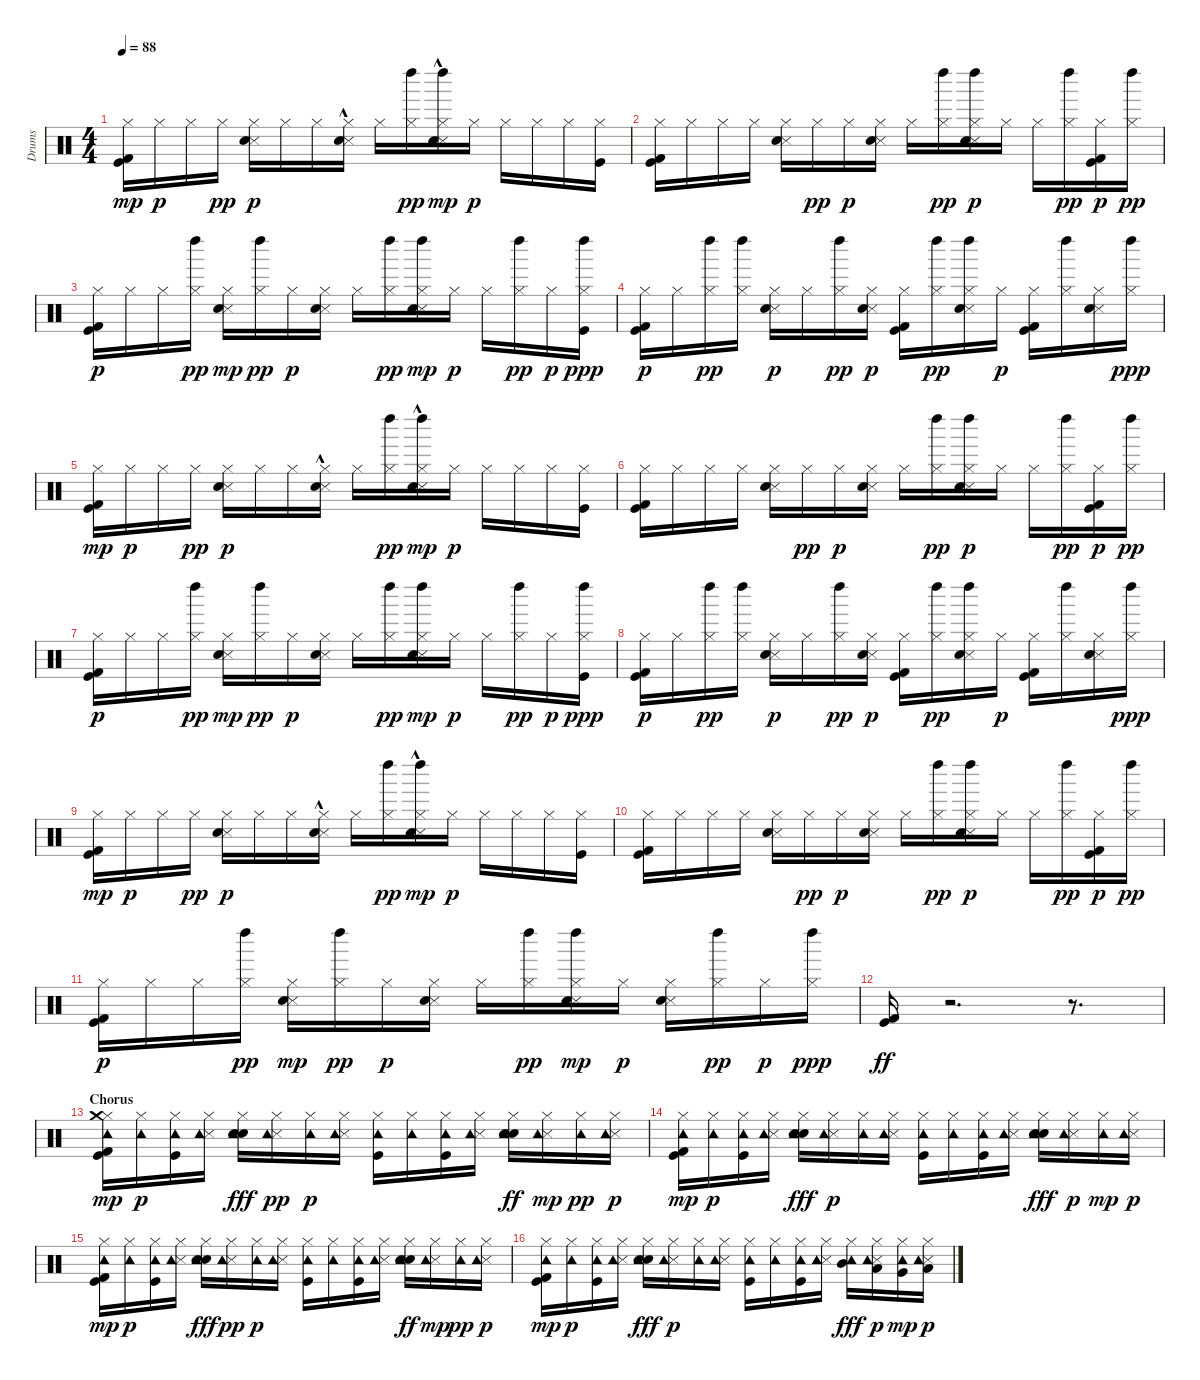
\track ("Drums" "Drums") {instrument percussion}
\staff {score}
\articulation defaults
\ts (4 4)
\tempo 88
\clef neutral
\ks c
("Kick (hit) 2" "Kick (hit)" "Hi-Hat (closed)").16{dy mp} "Hi-Hat (closed)".16{dy p} "Hi-Hat (closed)".16 "Hi-Hat (closed)".16{dy pp} ("Snare (side stick) 3" "Snare (hit) 2" "Hi-Hat (closed)").16{dy p} "Hi-Hat (closed)".16 "Hi-Hat (closed)".16 ("Snare (side stick) 3"{hac} "Snare (hit) 2"{hac} "Hi-Hat (closed)").16 "Hi-Hat (closed)".16 ("Hi-Hat (closed)" "Left Maraca (hit)").16{dy pp} ("Snare (side stick) 3"{hac} "Snare (hit) 2" "Hi-Hat (closed)" "Left Maraca (hit)").16{dy mp} "Hi-Hat (closed)".16{dy p} "Hi-Hat (closed)".16 "Hi-Hat (closed)".16 "Hi-Hat (closed)".16 ("Kick (hit)" "Hi-Hat (closed)").16 |
("Kick (hit)" "Kick (hit) 2" "Hi-Hat (closed)").16 "Hi-Hat (closed)".16 "Hi-Hat (closed)".16 "Hi-Hat (closed)".16 ("Snare (side stick) 3" "Snare (hit) 2" "Hi-Hat (closed)").16 "Hi-Hat (closed)".16{dy pp} "Hi-Hat (closed)".16{dy p} ("Snare (side stick) 3" "Snare (hit) 2" "Hi-Hat (closed)").16 "Hi-Hat (closed)".16 ("Hi-Hat (closed)" "Left Maraca (hit)").16{dy pp} ("Snare (side stick) 3" "Snare (hit) 2" "Hi-Hat (closed)" "Left Maraca (hit)").16{dy p} "Hi-Hat (closed)".16 "Hi-Hat (closed)".16 ("Hi-Hat (closed)" "Left Maraca (hit)").16{dy pp} ("Kick (hit)" "Kick (hit) 2" "Hi-Hat (closed)").16{dy p} ("Hi-Hat (closed)" "Left Maraca (hit)").16{dy pp} |
("Kick (hit)" "Kick (hit) 2" "Hi-Hat (closed)").16{dy p} "Hi-Hat (closed)".16 "Hi-Hat (closed)".16 ("Hi-Hat (closed)" "Left Maraca (hit)").16{dy pp} ("Snare (side stick) 3" "Snare (hit) 2" "Hi-Hat (closed)").16{dy mp} ("Hi-Hat (closed)" "Left Maraca (hit)").16{dy pp} "Hi-Hat (closed)".16{dy p} ("Snare (side stick) 3" "Snare (hit) 2" "Hi-Hat (closed)").16 "Hi-Hat (closed)".16 ("Hi-Hat (closed)" "Left Maraca (hit)").16{dy pp} ("Snare (side stick) 3" "Snare (hit) 2" "Hi-Hat (closed)" "Left Maraca (hit)").16{dy mp} "Hi-Hat (closed)".16{dy p} "Hi-Hat (closed)".16 ("Hi-Hat (closed)" "Left Maraca (hit)").16{dy pp} "Hi-Hat (closed)".16{dy p} ("Kick (hit)" "Hi-Hat (closed)" "Left Maraca (hit)").16{dy ppp} |
("Kick (hit)" "Kick (hit) 2" "Hi-Hat (closed)").16{dy p} "Hi-Hat (closed)".16 ("Hi-Hat (closed)" "Left Maraca (hit)").16{dy pp} ("Hi-Hat (closed)" "Left Maraca (hit)").16 ("Snare (side stick) 3" "Snare (hit) 2" "Hi-Hat (closed)").16{dy p} "Hi-Hat (closed)".16 ("Hi-Hat (closed)" "Left Maraca (hit)").16{dy pp} ("Snare (side stick) 3" "Snare (hit) 2" "Hi-Hat (closed)").16{dy p} ("Kick (hit) 2" "Kick (hit)" "Hi-Hat (closed)").16 ("Hi-Hat (closed)" "Left Maraca (hit)").16{dy pp} ("Snare (side stick) 3" "Snare (hit) 2" "Hi-Hat (closed)" "Left Maraca (hit)").16 "Hi-Hat (closed)".16{dy p} ("Kick (hit)" "Kick (hit) 2" "Hi-Hat (closed)").16 ("Hi-Hat (closed)" "Left Maraca (hit)").16 ("Snare (side stick) 3" "Snare (hit) 2" "Hi-Hat (closed)").16 ("Hi-Hat (closed)" "Left Maraca (hit)").16{dy ppp} |
("Kick (hit) 2" "Kick (hit)" "Hi-Hat (closed)").16{dy mp} "Hi-Hat (closed)".16{dy p} "Hi-Hat (closed)".16 "Hi-Hat (closed)".16{dy pp} ("Snare (side stick) 3" "Snare (hit) 2" "Hi-Hat (closed)").16{dy p} "Hi-Hat (closed)".16 "Hi-Hat (closed)".16 ("Snare (side stick) 3"{hac} "Snare (hit) 2"{hac} "Hi-Hat (closed)").16 "Hi-Hat (closed)".16 ("Hi-Hat (closed)" "Left Maraca (hit)").16{dy pp} ("Snare (side stick) 3"{hac} "Snare (hit) 2" "Hi-Hat (closed)" "Left Maraca (hit)").16{dy mp} "Hi-Hat (closed)".16{dy p} "Hi-Hat (closed)".16 "Hi-Hat (closed)".16 "Hi-Hat (closed)".16 ("Kick (hit)" "Hi-Hat (closed)").16 |
("Kick (hit)" "Kick (hit) 2" "Hi-Hat (closed)").16 "Hi-Hat (closed)".16 "Hi-Hat (closed)".16 "Hi-Hat (closed)".16 ("Snare (side stick) 3" "Snare (hit) 2" "Hi-Hat (closed)").16 "Hi-Hat (closed)".16{dy pp} "Hi-Hat (closed)".16{dy p} ("Snare (side stick) 3" "Snare (hit) 2" "Hi-Hat (closed)").16 "Hi-Hat (closed)".16 ("Hi-Hat (closed)" "Left Maraca (hit)").16{dy pp} ("Snare (side stick) 3" "Snare (hit) 2" "Hi-Hat (closed)" "Left Maraca (hit)").16{dy p} "Hi-Hat (closed)".16 "Hi-Hat (closed)".16 ("Hi-Hat (closed)" "Left Maraca (hit)").16{dy pp} ("Kick (hit)" "Kick (hit) 2" "Hi-Hat (closed)").16{dy p} ("Hi-Hat (closed)" "Left Maraca (hit)").16{dy pp} |
("Kick (hit)" "Kick (hit) 2" "Hi-Hat (closed)").16{dy p} "Hi-Hat (closed)".16 "Hi-Hat (closed)".16 ("Hi-Hat (closed)" "Left Maraca (hit)").16{dy pp} ("Snare (side stick) 3" "Snare (hit) 2" "Hi-Hat (closed)").16{dy mp} ("Hi-Hat (closed)" "Left Maraca (hit)").16{dy pp} "Hi-Hat (closed)".16{dy p} ("Snare (side stick) 3" "Snare (hit) 2" "Hi-Hat (closed)").16 "Hi-Hat (closed)".16 ("Hi-Hat (closed)" "Left Maraca (hit)").16{dy pp} ("Snare (side stick) 3" "Snare (hit) 2" "Hi-Hat (closed)" "Left Maraca (hit)").16{dy mp} "Hi-Hat (closed)".16{dy p} "Hi-Hat (closed)".16 ("Hi-Hat (closed)" "Left Maraca (hit)").16{dy pp} "Hi-Hat (closed)".16{dy p} ("Kick (hit)" "Hi-Hat (closed)" "Left Maraca (hit)").16{dy ppp} |
("Kick (hit)" "Kick (hit) 2" "Hi-Hat (closed)").16{dy p} "Hi-Hat (closed)".16 ("Hi-Hat (closed)" "Left Maraca (hit)").16{dy pp} ("Hi-Hat (closed)" "Left Maraca (hit)").16 ("Snare (side stick) 3" "Snare (hit) 2" "Hi-Hat (closed)").16{dy p} "Hi-Hat (closed)".16 ("Hi-Hat (closed)" "Left Maraca (hit)").16{dy pp} ("Snare (side stick) 3" "Snare (hit) 2" "Hi-Hat (closed)").16{dy p} ("Kick (hit) 2" "Kick (hit)" "Hi-Hat (closed)").16 ("Hi-Hat (closed)" "Left Maraca (hit)").16{dy pp} ("Snare (side stick) 3" "Snare (hit) 2" "Hi-Hat (closed)" "Left Maraca (hit)").16 "Hi-Hat (closed)".16{dy p} ("Kick (hit)" "Kick (hit) 2" "Hi-Hat (closed)").16 ("Hi-Hat (closed)" "Left Maraca (hit)").16 ("Snare (side stick) 3" "Snare (hit) 2" "Hi-Hat (closed)").16 ("Hi-Hat (closed)" "Left Maraca (hit)").16{dy ppp} |
("Kick (hit) 2" "Kick (hit)" "Hi-Hat (closed)").16{dy mp} "Hi-Hat (closed)".16{dy p} "Hi-Hat (closed)".16 "Hi-Hat (closed)".16{dy pp} ("Snare (side stick) 3" "Snare (hit) 2" "Hi-Hat (closed)").16{dy p} "Hi-Hat (closed)".16 "Hi-Hat (closed)".16 ("Snare (side stick) 3"{hac} "Snare (hit) 2"{hac} "Hi-Hat (closed)").16 "Hi-Hat (closed)".16 ("Hi-Hat (closed)" "Left Maraca (hit)").16{dy pp} ("Snare (side stick) 3"{hac} "Snare (hit) 2" "Hi-Hat (closed)" "Left Maraca (hit)").16{dy mp} "Hi-Hat (closed)".16{dy p} "Hi-Hat (closed)".16 "Hi-Hat (closed)".16 "Hi-Hat (closed)".16 ("Kick (hit)" "Hi-Hat (closed)").16 |
("Kick (hit)" "Kick (hit) 2" "Hi-Hat (closed)").16 "Hi-Hat (closed)".16 "Hi-Hat (closed)".16 "Hi-Hat (closed)".16 ("Snare (side stick) 3" "Snare (hit) 2" "Hi-Hat (closed)").16 "Hi-Hat (closed)".16{dy pp} "Hi-Hat (closed)".16{dy p} ("Snare (side stick) 3" "Snare (hit) 2" "Hi-Hat (closed)").16 "Hi-Hat (closed)".16 ("Hi-Hat (closed)" "Left Maraca (hit)").16{dy pp} ("Snare (side stick) 3" "Snare (hit) 2" "Hi-Hat (closed)" "Left Maraca (hit)").16{dy p} "Hi-Hat (closed)".16 "Hi-Hat (closed)".16 ("Hi-Hat (closed)" "Left Maraca (hit)").16{dy pp} ("Kick (hit)" "Kick (hit) 2" "Hi-Hat (closed)").16{dy p} ("Hi-Hat (closed)" "Left Maraca (hit)").16{dy pp} |
("Kick (hit)" "Kick (hit) 2" "Hi-Hat (closed)").16{dy p} "Hi-Hat (closed)".16 "Hi-Hat (closed)".16 ("Hi-Hat (closed)" "Left Maraca (hit)").16{dy pp} ("Snare (side stick) 3" "Snare (hit) 2" "Hi-Hat (closed)").16{dy mp} ("Hi-Hat (closed)" "Left Maraca (hit)").16{dy pp} "Hi-Hat (closed)".16{dy p} ("Snare (side stick) 3" "Snare (hit) 2" "Hi-Hat (closed)").16 "Hi-Hat (closed)".16 ("Hi-Hat (closed)" "Left Maraca (hit)").16{dy pp} ("Snare (side stick) 3" "Snare (hit) 2" "Hi-Hat (closed)" "Left Maraca (hit)").16{dy mp} "Hi-Hat (closed)".16{dy p} ("Snare (side stick) 3" "Snare (hit) 2" "Hi-Hat (closed)").16 ("Hi-Hat (closed)" "Left Maraca (hit)").16{dy pp} "Hi-Hat (closed)".16{dy p} ("Hi-Hat (closed)" "Left Maraca (hit)").16{dy ppp} |
("Kick (hit) 2" "Kick (hit)").16{dy ff} r.2{d} r.8{d} |
\section ("" "Chorus")
("Kick (hit)" "Kick (hit) 2" "Hi-Hat (closed)" "Crash medium (hit)" "Tambourine (hit)").16{dy mp} ("Hi-Hat (closed)" "Tambourine (hit)").16{dy p} ("Kick (hit)" "Hi-Hat (closed)" "Tambourine (hit)").16 ("Snare (side stick) 3" "Hi-Hat (closed)" "Tambourine (hit)").16 ("Electric Snare (hit)" "Snare (hit) 2" "Hi-Hat (closed)" "Tambourine (hit)").16{dy fff} ("Snare (side stick) 3" "Hi-Hat (closed)" "Tambourine (hit)").16{dy pp} ("Hi-Hat (closed)" "Tambourine (hit)").16{dy p} ("Snare (side stick) 3" "Hi-Hat (closed)" "Tambourine (hit)").16 ("Kick (hit)" "Hi-Hat (closed)" "Tambourine (hit)").16 ("Hi-Hat (closed)" "Tambourine (hit)").16 ("Kick (hit)" "Hi-Hat (closed)" "Tambourine (hit)").16 ("Snare (side stick) 3" "Hi-Hat (closed)" "Tambourine (hit)").16 ("Snare (hit) 2" "Electric Snare (hit)" "Hi-Hat (closed)" "Tambourine (hit)").16{dy ff} ("Snare (side stick) 3" "Hi-Hat (closed)" "Tambourine (hit)").16{dy mp} ("Hi-Hat (closed)" "Tambourine (hit)").16{dy pp} ("Snare (side stick) 3" "Hi-Hat (closed)" "Tambourine (hit)").16{dy p} |
("Kick (hit)" "Kick (hit) 2" "Hi-Hat (closed)" "Tambourine (hit)").16{dy mp} ("Hi-Hat (closed)" "Tambourine (hit)").16{dy p} ("Kick (hit)" "Hi-Hat (closed)" "Tambourine (hit)").16 ("Snare (side stick) 3" "Hi-Hat (closed)" "Tambourine (hit)").16 ("Snare (hit) 2" "Electric Snare (hit)" "Hi-Hat (closed)" "Tambourine (hit)").16{dy fff} ("Snare (side stick) 3" "Hi-Hat (closed)" "Tambourine (hit)").16{dy p} ("Hi-Hat (closed)" "Tambourine (hit)").16 ("Snare (side stick) 3" "Hi-Hat (closed)" "Tambourine (hit)").16 ("Kick (hit)" "Hi-Hat (closed)" "Tambourine (hit)").16 ("Hi-Hat (closed)" "Tambourine (hit)").16 ("Kick (hit)" "Hi-Hat (closed)" "Tambourine (hit)").16 ("Snare (side stick) 3" "Hi-Hat (closed)" "Tambourine (hit)").16 ("Snare (hit) 2" "Electric Snare (hit)" "Hi-Hat (closed)" "Tambourine (hit)").16{dy fff} ("Snare (side stick) 3" "Hi-Hat (closed)" "Tambourine (hit)").16{dy p} ("Hi-Hat (closed)" "Tambourine (hit)").16{dy mp} ("Snare (side stick) 3" "Hi-Hat (closed)" "Tambourine (hit)").16{dy p} |
("Kick (hit)" "Kick (hit) 2" "Hi-Hat (closed)" "Tambourine (hit)").16{dy mp} ("Hi-Hat (closed)" "Tambourine (hit)").16{dy p} ("Kick (hit)" "Hi-Hat (closed)" "Tambourine (hit)").16 ("Snare (side stick) 3" "Hi-Hat (closed)" "Tambourine (hit)").16 ("Electric Snare (hit)" "Snare (hit) 2" "Hi-Hat (closed)" "Tambourine (hit)").16{dy fff} ("Snare (side stick) 3" "Hi-Hat (closed)" "Tambourine (hit)").16{dy pp} ("Hi-Hat (closed)" "Tambourine (hit)").16{dy p} ("Snare (side stick) 3" "Hi-Hat (closed)" "Tambourine (hit)").16 ("Kick (hit)" "Hi-Hat (closed)" "Tambourine (hit)").16 ("Hi-Hat (closed)" "Tambourine (hit)").16 ("Kick (hit)" "Hi-Hat (closed)" "Tambourine (hit)").16 ("Snare (side stick) 3" "Hi-Hat (closed)" "Tambourine (hit)").16 ("Snare (hit) 2" "Electric Snare (hit)" "Hi-Hat (closed)" "Tambourine (hit)").16{dy ff} ("Snare (side stick) 3" "Hi-Hat (closed)" "Tambourine (hit)").16{dy mp} ("Hi-Hat (closed)" "Tambourine (hit)").16{dy pp} ("Snare (side stick) 3" "Hi-Hat (closed)" "Tambourine (hit)").16{dy p} |
("Kick (hit)" "Kick (hit) 2" "Hi-Hat (closed)" "Tambourine (hit)").16{dy mp} ("Hi-Hat (closed)" "Tambourine (hit)").16{dy p} ("Kick (hit)" "Hi-Hat (closed)" "Tambourine (hit)").16 ("Snare (side stick) 3" "Hi-Hat (closed)" "Tambourine (hit)").16 ("Snare (hit) 2" "Electric Snare (hit)" "Hi-Hat (closed)" "Tambourine (hit)").16{dy fff} ("Snare (side stick) 3" "Hi-Hat (closed)" "Tambourine (hit)").16{dy p} ("Hi-Hat (closed)" "Tambourine (hit)").16 ("Snare (side stick) 3" "Hi-Hat (closed)" "Tambourine (hit)").16 ("Kick (hit)" "Hi-Hat (closed)" "Tambourine (hit)").16 ("Hi-Hat (closed)" "Tambourine (hit)").16 ("Kick (hit)" "Hi-Hat (closed)" "Tambourine (hit)").16 ("Snare (side stick) 3" "Hi-Hat (closed)" "Tambourine (hit)").16 ("Hi-Hat (closed)" "Mid Tom (hit)" "Tambourine (hit)").16{dy fff} ("Snare (side stick) 3" "Hi-Hat (closed)" "Low Tom (hit)" "Tambourine (hit)").16{dy p} ("Hi-Hat (closed)" "Very Low Tom (hit)" "Tambourine (hit)").16{dy mp} ("Snare (side stick) 3" "Hi-Hat (closed)" "Low Floor Tom (hit)" "Tambourine (hit)").16{dy p}
